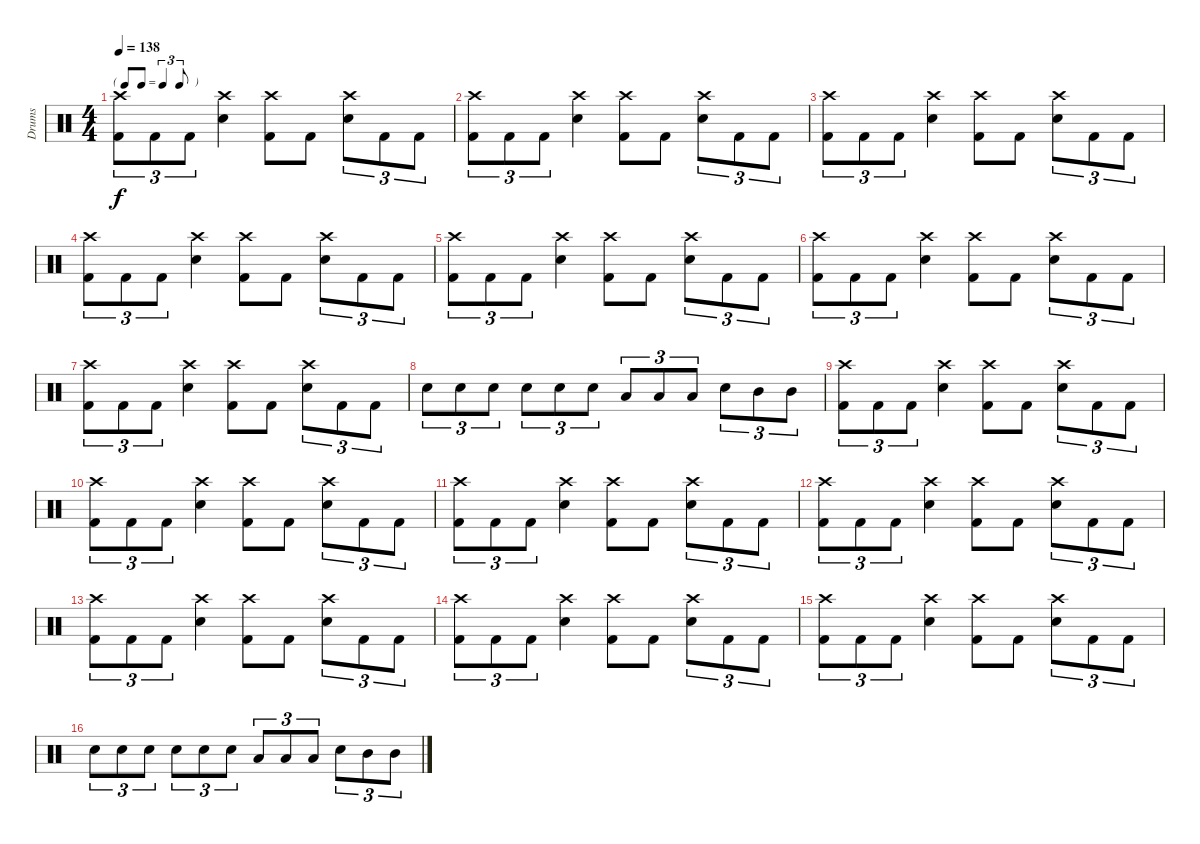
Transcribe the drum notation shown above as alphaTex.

\track ("Drums" "Drums") {instrument percussion}
\staff {score}
\articulation defaults
\ts (4 4)
\tf triplet8th
\tempo 138
\clef neutral
\ks c
("Crash high (hit)" "Kick (hit) 2").8{tu (3 2) dy f} "Kick (hit) 2".8{tu (3 2)} "Kick (hit) 2".8{tu (3 2)} ("Crash high (hit)" "Snare (hit) 2").4 ("Crash high (hit)" "Kick (hit) 2").8 "Kick (hit) 2".8 ("Crash high (hit)" "Snare (hit) 2").8{tu (3 2)} "Kick (hit) 2".8{tu (3 2)} "Kick (hit) 2".8{tu (3 2)} |
("Crash high (hit)" "Kick (hit) 2").8{tu (3 2)} "Kick (hit) 2".8{tu (3 2)} "Kick (hit) 2".8{tu (3 2)} ("Crash high (hit)" "Snare (hit) 2").4 ("Crash high (hit)" "Kick (hit) 2").8 "Kick (hit) 2".8 ("Crash high (hit)" "Snare (hit) 2").8{tu (3 2)} "Kick (hit) 2".8{tu (3 2)} "Kick (hit) 2".8{tu (3 2)} |
("Crash high (hit)" "Kick (hit) 2").8{tu (3 2)} "Kick (hit) 2".8{tu (3 2)} "Kick (hit) 2".8{tu (3 2)} ("Crash high (hit)" "Snare (hit) 2").4 ("Crash high (hit)" "Kick (hit) 2").8 "Kick (hit) 2".8 ("Crash high (hit)" "Snare (hit) 2").8{tu (3 2)} "Kick (hit) 2".8{tu (3 2)} "Kick (hit) 2".8{tu (3 2)} |
("Crash high (hit)" "Kick (hit) 2").8{tu (3 2)} "Kick (hit) 2".8{tu (3 2)} "Kick (hit) 2".8{tu (3 2)} ("Crash high (hit)" "Snare (hit) 2").4 ("Crash high (hit)" "Kick (hit) 2").8 "Kick (hit) 2".8 ("Crash high (hit)" "Snare (hit) 2").8{tu (3 2)} "Kick (hit) 2".8{tu (3 2)} "Kick (hit) 2".8{tu (3 2)} |
("Crash high (hit)" "Kick (hit) 2").8{tu (3 2)} "Kick (hit) 2".8{tu (3 2)} "Kick (hit) 2".8{tu (3 2)} ("Crash high (hit)" "Snare (hit) 2").4 ("Crash high (hit)" "Kick (hit) 2").8 "Kick (hit) 2".8 ("Crash high (hit)" "Snare (hit) 2").8{tu (3 2)} "Kick (hit) 2".8{tu (3 2)} "Kick (hit) 2".8{tu (3 2)} |
("Crash high (hit)" "Kick (hit) 2").8{tu (3 2)} "Kick (hit) 2".8{tu (3 2)} "Kick (hit) 2".8{tu (3 2)} ("Crash high (hit)" "Snare (hit) 2").4 ("Crash high (hit)" "Kick (hit) 2").8 "Kick (hit) 2".8 ("Crash high (hit)" "Snare (hit) 2").8{tu (3 2)} "Kick (hit) 2".8{tu (3 2)} "Kick (hit) 2".8{tu (3 2)} |
("Crash high (hit)" "Kick (hit) 2").8{tu (3 2)} "Kick (hit) 2".8{tu (3 2)} "Kick (hit) 2".8{tu (3 2)} ("Crash high (hit)" "Snare (hit) 2").4 ("Crash high (hit)" "Kick (hit) 2").8 "Kick (hit) 2".8 ("Crash high (hit)" "Snare (hit) 2").8{tu (3 2)} "Kick (hit) 2".8{tu (3 2)} "Kick (hit) 2".8{tu (3 2)} |
"Snare (hit) 2".8{tu (3 2)} "Snare (hit) 2".8{tu (3 2)} "Snare (hit) 2".8{tu (3 2)} "Snare (hit) 2".8{tu (3 2)} "Snare (hit) 2".8{tu (3 2)} "Snare (hit) 2".8{tu (3 2)} "Low Tom (hit)".8{tu (3 2)} "Low Tom (hit)".8{tu (3 2)} "Low Tom (hit)".8{tu (3 2)} "Snare (hit) 2".8{tu (3 2)} "Mid Tom (hit)".8{tu (3 2)} "Mid Tom (hit)".8{tu (3 2)} |
("Crash high (hit)" "Kick (hit) 2").8{tu (3 2)} "Kick (hit) 2".8{tu (3 2)} "Kick (hit) 2".8{tu (3 2)} ("Crash high (hit)" "Snare (hit) 2").4 ("Crash high (hit)" "Kick (hit) 2").8 "Kick (hit) 2".8 ("Crash high (hit)" "Snare (hit) 2").8{tu (3 2)} "Kick (hit) 2".8{tu (3 2)} "Kick (hit) 2".8{tu (3 2)} |
("Crash high (hit)" "Kick (hit) 2").8{tu (3 2)} "Kick (hit) 2".8{tu (3 2)} "Kick (hit) 2".8{tu (3 2)} ("Crash high (hit)" "Snare (hit) 2").4 ("Crash high (hit)" "Kick (hit) 2").8 "Kick (hit) 2".8 ("Crash high (hit)" "Snare (hit) 2").8{tu (3 2)} "Kick (hit) 2".8{tu (3 2)} "Kick (hit) 2".8{tu (3 2)} |
("Crash high (hit)" "Kick (hit) 2").8{tu (3 2)} "Kick (hit) 2".8{tu (3 2)} "Kick (hit) 2".8{tu (3 2)} ("Crash high (hit)" "Snare (hit) 2").4 ("Crash high (hit)" "Kick (hit) 2").8 "Kick (hit) 2".8 ("Crash high (hit)" "Snare (hit) 2").8{tu (3 2)} "Kick (hit) 2".8{tu (3 2)} "Kick (hit) 2".8{tu (3 2)} |
("Crash high (hit)" "Kick (hit) 2").8{tu (3 2)} "Kick (hit) 2".8{tu (3 2)} "Kick (hit) 2".8{tu (3 2)} ("Crash high (hit)" "Snare (hit) 2").4 ("Crash high (hit)" "Kick (hit) 2").8 "Kick (hit) 2".8 ("Crash high (hit)" "Snare (hit) 2").8{tu (3 2)} "Kick (hit) 2".8{tu (3 2)} "Kick (hit) 2".8{tu (3 2)} |
("Crash high (hit)" "Kick (hit) 2").8{tu (3 2)} "Kick (hit) 2".8{tu (3 2)} "Kick (hit) 2".8{tu (3 2)} ("Crash high (hit)" "Snare (hit) 2").4 ("Crash high (hit)" "Kick (hit) 2").8 "Kick (hit) 2".8 ("Crash high (hit)" "Snare (hit) 2").8{tu (3 2)} "Kick (hit) 2".8{tu (3 2)} "Kick (hit) 2".8{tu (3 2)} |
("Crash high (hit)" "Kick (hit) 2").8{tu (3 2)} "Kick (hit) 2".8{tu (3 2)} "Kick (hit) 2".8{tu (3 2)} ("Crash high (hit)" "Snare (hit) 2").4 ("Crash high (hit)" "Kick (hit) 2").8 "Kick (hit) 2".8 ("Crash high (hit)" "Snare (hit) 2").8{tu (3 2)} "Kick (hit) 2".8{tu (3 2)} "Kick (hit) 2".8{tu (3 2)} |
("Crash high (hit)" "Kick (hit) 2").8{tu (3 2)} "Kick (hit) 2".8{tu (3 2)} "Kick (hit) 2".8{tu (3 2)} ("Crash high (hit)" "Snare (hit) 2").4 ("Crash high (hit)" "Kick (hit) 2").8 "Kick (hit) 2".8 ("Crash high (hit)" "Snare (hit) 2").8{tu (3 2)} "Kick (hit) 2".8{tu (3 2)} "Kick (hit) 2".8{tu (3 2)} |
"Snare (hit) 2".8{tu (3 2)} "Snare (hit) 2".8{tu (3 2)} "Snare (hit) 2".8{tu (3 2)} "Snare (hit) 2".8{tu (3 2)} "Snare (hit) 2".8{tu (3 2)} "Snare (hit) 2".8{tu (3 2)} "Low Tom (hit)".8{tu (3 2)} "Low Tom (hit)".8{tu (3 2)} "Low Tom (hit)".8{tu (3 2)} "Snare (hit) 2".8{tu (3 2)} "Mid Tom (hit)".8{tu (3 2)} "Mid Tom (hit)".8{tu (3 2)}
